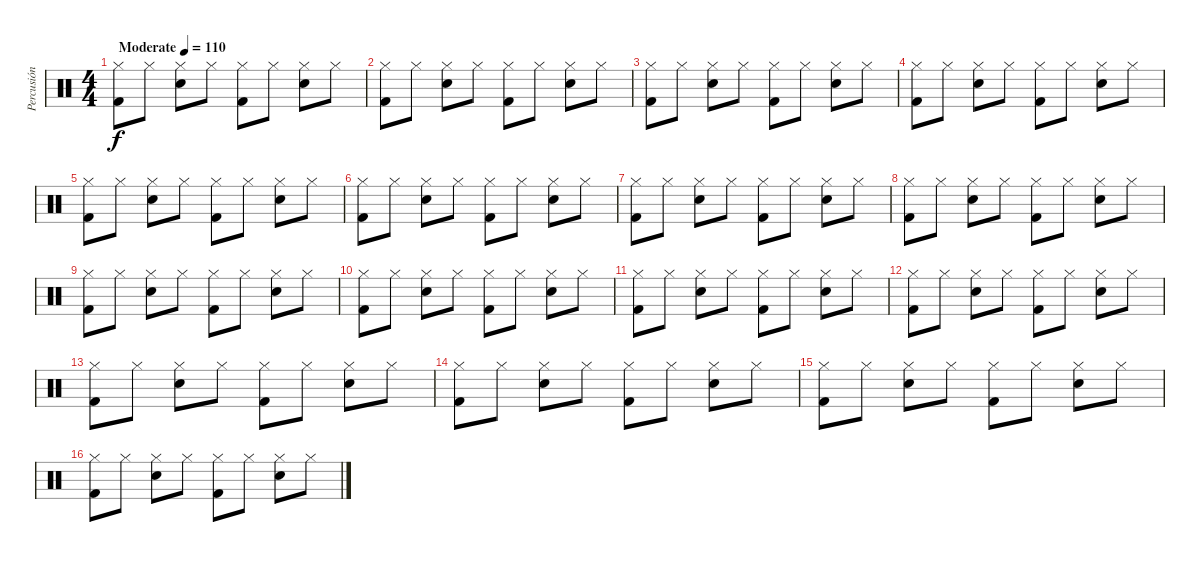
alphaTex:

\track ("Percusión" "Percusión") {instrument percussion}
\staff {score}
\articulation defaults
\ts (4 4)
\tempo (110 "Moderate")
\clef neutral
\ks c
("Kick (hit) 2" "Hi-Hat (closed)").8{dy f} "Hi-Hat (closed)".8 ("Snare (hit) 2" "Hi-Hat (closed)").8 "Hi-Hat (closed)".8 ("Kick (hit) 2" "Hi-Hat (closed)").8 "Hi-Hat (closed)".8 ("Snare (hit) 2" "Hi-Hat (closed)").8 "Hi-Hat (closed)".8 |
("Kick (hit) 2" "Hi-Hat (closed)").8 "Hi-Hat (closed)".8 ("Snare (hit) 2" "Hi-Hat (closed)").8 "Hi-Hat (closed)".8 ("Kick (hit) 2" "Hi-Hat (closed)").8 "Hi-Hat (closed)".8 ("Snare (hit) 2" "Hi-Hat (closed)").8 "Hi-Hat (closed)".8 |
("Kick (hit) 2" "Hi-Hat (closed)").8 "Hi-Hat (closed)".8 ("Snare (hit) 2" "Hi-Hat (closed)").8 "Hi-Hat (closed)".8 ("Kick (hit) 2" "Hi-Hat (closed)").8 "Hi-Hat (closed)".8 ("Snare (hit) 2" "Hi-Hat (closed)").8 "Hi-Hat (closed)".8 |
("Kick (hit) 2" "Hi-Hat (closed)").8 "Hi-Hat (closed)".8 ("Snare (hit) 2" "Hi-Hat (closed)").8 "Hi-Hat (closed)".8 ("Kick (hit) 2" "Hi-Hat (closed)").8 "Hi-Hat (closed)".8 ("Snare (hit) 2" "Hi-Hat (closed)").8 "Hi-Hat (closed)".8 |
("Kick (hit) 2" "Hi-Hat (closed)").8 "Hi-Hat (closed)".8 ("Snare (hit) 2" "Hi-Hat (closed)").8 "Hi-Hat (closed)".8 ("Kick (hit) 2" "Hi-Hat (closed)").8 "Hi-Hat (closed)".8 ("Snare (hit) 2" "Hi-Hat (closed)").8 "Hi-Hat (closed)".8 |
("Kick (hit) 2" "Hi-Hat (closed)").8 "Hi-Hat (closed)".8 ("Snare (hit) 2" "Hi-Hat (closed)").8 "Hi-Hat (closed)".8 ("Kick (hit) 2" "Hi-Hat (closed)").8 "Hi-Hat (closed)".8 ("Snare (hit) 2" "Hi-Hat (closed)").8 "Hi-Hat (closed)".8 |
("Kick (hit) 2" "Hi-Hat (closed)").8 "Hi-Hat (closed)".8 ("Snare (hit) 2" "Hi-Hat (closed)").8 "Hi-Hat (closed)".8 ("Kick (hit) 2" "Hi-Hat (closed)").8 "Hi-Hat (closed)".8 ("Snare (hit) 2" "Hi-Hat (closed)").8 "Hi-Hat (closed)".8 |
("Kick (hit) 2" "Hi-Hat (closed)").8 "Hi-Hat (closed)".8 ("Snare (hit) 2" "Hi-Hat (closed)").8 "Hi-Hat (closed)".8 ("Kick (hit) 2" "Hi-Hat (closed)").8 "Hi-Hat (closed)".8 ("Snare (hit) 2" "Hi-Hat (closed)").8 "Hi-Hat (closed)".8 |
("Kick (hit) 2" "Hi-Hat (closed)").8 "Hi-Hat (closed)".8 ("Snare (hit) 2" "Hi-Hat (closed)").8 "Hi-Hat (closed)".8 ("Kick (hit) 2" "Hi-Hat (closed)").8 "Hi-Hat (closed)".8 ("Snare (hit) 2" "Hi-Hat (closed)").8 "Hi-Hat (closed)".8 |
("Kick (hit) 2" "Hi-Hat (closed)").8 "Hi-Hat (closed)".8 ("Snare (hit) 2" "Hi-Hat (closed)").8 "Hi-Hat (closed)".8 ("Kick (hit) 2" "Hi-Hat (closed)").8 "Hi-Hat (closed)".8 ("Snare (hit) 2" "Hi-Hat (closed)").8 "Hi-Hat (closed)".8 |
("Kick (hit) 2" "Hi-Hat (closed)").8 "Hi-Hat (closed)".8 ("Snare (hit) 2" "Hi-Hat (closed)").8 "Hi-Hat (closed)".8 ("Kick (hit) 2" "Hi-Hat (closed)").8 "Hi-Hat (closed)".8 ("Snare (hit) 2" "Hi-Hat (closed)").8 "Hi-Hat (closed)".8 |
("Kick (hit) 2" "Hi-Hat (closed)").8 "Hi-Hat (closed)".8 ("Snare (hit) 2" "Hi-Hat (closed)").8 "Hi-Hat (closed)".8 ("Kick (hit) 2" "Hi-Hat (closed)").8 "Hi-Hat (closed)".8 ("Snare (hit) 2" "Hi-Hat (closed)").8 "Hi-Hat (closed)".8 |
("Kick (hit) 2" "Hi-Hat (closed)").8 "Hi-Hat (closed)".8 ("Snare (hit) 2" "Hi-Hat (closed)").8 "Hi-Hat (closed)".8 ("Kick (hit) 2" "Hi-Hat (closed)").8 "Hi-Hat (closed)".8 ("Snare (hit) 2" "Hi-Hat (closed)").8 "Hi-Hat (closed)".8 |
("Kick (hit) 2" "Hi-Hat (closed)").8 "Hi-Hat (closed)".8 ("Snare (hit) 2" "Hi-Hat (closed)").8 "Hi-Hat (closed)".8 ("Kick (hit) 2" "Hi-Hat (closed)").8 "Hi-Hat (closed)".8 ("Snare (hit) 2" "Hi-Hat (closed)").8 "Hi-Hat (closed)".8 |
("Kick (hit) 2" "Hi-Hat (closed)").8 "Hi-Hat (closed)".8 ("Snare (hit) 2" "Hi-Hat (closed)").8 "Hi-Hat (closed)".8 ("Kick (hit) 2" "Hi-Hat (closed)").8 "Hi-Hat (closed)".8 ("Snare (hit) 2" "Hi-Hat (closed)").8 "Hi-Hat (closed)".8 |
("Kick (hit) 2" "Hi-Hat (closed)").8 "Hi-Hat (closed)".8 ("Snare (hit) 2" "Hi-Hat (closed)").8 "Hi-Hat (closed)".8 ("Kick (hit) 2" "Hi-Hat (closed)").8 "Hi-Hat (closed)".8 ("Snare (hit) 2" "Hi-Hat (closed)").8 "Hi-Hat (closed)".8
